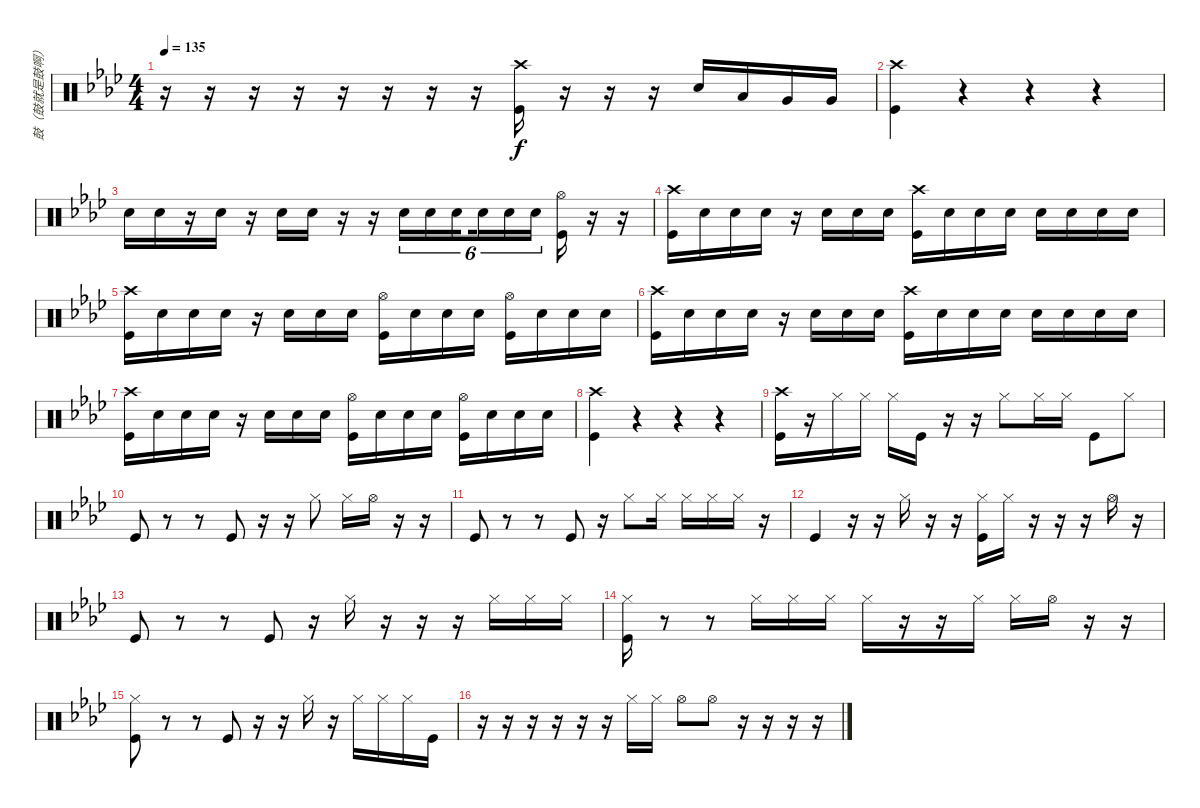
\track ("鼓（鼓就是鼓啊）" "鼓（鼓就是鼓啊）") {instrument percussion}
\staff {score}
\articulation defaults
\ts (4 4)
\tempo 135
\clef neutral
\ks ab
r.16{dy f} r.16 r.16 r.16 r.16 r.16 r.16 r.16 ("Crash high (hit)" "Kick (hit)").16 r.16 r.16 r.16 "Snare (hit) 2".16 "Low Tom (hit)".16 "Very Low Tom (hit)".16 "Very Low Tom (hit)".16 |
("Crash high (hit)" "Kick (hit)").4 r.4 r.4 r.4 |
"Snare (hit) 2".16 "Snare (hit) 2".16 r.16 "Snare (hit) 2".16 r.16 "Snare (hit) 2".16 "Snare (hit) 2".16 r.16 r.16 "Snare (hit) 2".16{tu (6 4)} "Snare (hit) 2".16{tu (6 4)} "Snare (hit) 2".16{tu (6 4) beam splitsecondary} "Snare (hit) 2".16{tu (6 4)} "Snare (hit) 2".16{tu (6 4)} "Snare (hit) 2".16{tu (6 4)} ("Hi-Hat (open)" "Kick (hit)").16 r.16 r.16 |
("Crash high (hit)" "Kick (hit)").16 "Snare (hit) 2".16 "Snare (hit) 2".16 "Snare (hit) 2".16 r.16 "Snare (hit) 2".16 "Snare (hit) 2".16 "Snare (hit) 2".16 ("Crash high (hit)" "Kick (hit)").16 "Snare (hit) 2".16 "Snare (hit) 2".16 "Snare (hit) 2".16 "Snare (hit) 2".16 "Snare (hit) 2".16 "Snare (hit) 2".16 "Snare (hit) 2".16 |
("Crash high (hit)" "Kick (hit)").16 "Snare (hit) 2".16 "Snare (hit) 2".16 "Snare (hit) 2".16 r.16 "Snare (hit) 2".16 "Snare (hit) 2".16 "Snare (hit) 2".16 ("Hi-Hat (open)" "Kick (hit)").16 "Snare (hit) 2".16 "Snare (hit) 2".16 "Snare (hit) 2".16 ("Hi-Hat (open)" "Kick (hit)").16 "Snare (hit) 2".16 "Snare (hit) 2".16 "Snare (hit) 2".16 |
("Crash high (hit)" "Kick (hit)").16 "Snare (hit) 2".16 "Snare (hit) 2".16 "Snare (hit) 2".16 r.16 "Snare (hit) 2".16 "Snare (hit) 2".16 "Snare (hit) 2".16 ("Crash high (hit)" "Kick (hit)").16 "Snare (hit) 2".16 "Snare (hit) 2".16 "Snare (hit) 2".16 "Snare (hit) 2".16 "Snare (hit) 2".16 "Snare (hit) 2".16 "Snare (hit) 2".16 |
("Crash high (hit)" "Kick (hit)").16 "Snare (hit) 2".16 "Snare (hit) 2".16 "Snare (hit) 2".16 r.16 "Snare (hit) 2".16 "Snare (hit) 2".16 "Snare (hit) 2".16 ("Hi-Hat (open)" "Kick (hit)").16 "Snare (hit) 2".16 "Snare (hit) 2".16 "Snare (hit) 2".16 ("Hi-Hat (open)" "Kick (hit)").16 "Snare (hit) 2".16 "Snare (hit) 2".16 "Snare (hit) 2".16 |
("Crash high (hit)" "Kick (hit)").4 r.4 r.4 r.4 |
("Crash high (hit)" "Kick (hit)").16 r.16 "Hi-Hat (closed)".16 "Hi-Hat (closed)".16 "Hi-Hat (closed)".16 "Kick (hit)".16 r.16 r.16 "Hi-Hat (closed)".8 "Hi-Hat (closed)".16 "Hi-Hat (closed)".16 "Kick (hit)".8 "Hi-Hat (closed)".8 |
"Kick (hit)".8 r.8 r.8 "Kick (hit)".8 r.16 r.16 "Hi-Hat (closed)".8 "Hi-Hat (closed)".16 "Hi-Hat (open)".16 r.16 r.16 |
"Kick (hit)".8 r.8 r.8 "Kick (hit)".8 r.16 "Hi-Hat (closed)".8 "Hi-Hat (closed)".16 "Hi-Hat (closed)".16 "Hi-Hat (closed)".16 "Hi-Hat (closed)".16 r.16 |
"Kick (hit)".4 r.16 r.16 "Hi-Hat (closed)".16 r.16 r.16 ("Hi-Hat (closed)" "Kick (hit)").16 "Hi-Hat (closed)".16 r.16 r.16 r.16 "Hi-Hat (open)".16 r.16 |
"Kick (hit)".8 r.8 r.8 "Kick (hit)".8 r.16 "Hi-Hat (closed)".16 r.16 r.16 r.16 "Hi-Hat (closed)".16 "Hi-Hat (closed)".16 "Hi-Hat (closed)".16 |
("Hi-Hat (closed)" "Kick (hit)").16 r.8 r.8 "Hi-Hat (closed)".16 "Hi-Hat (closed)".16 "Hi-Hat (closed)".16 "Hi-Hat (closed)".16 r.16 r.16 "Hi-Hat (closed)".16 "Hi-Hat (closed)".16 "Hi-Hat (open)".16 r.16 r.16 |
("Hi-Hat (closed)" "Kick (hit)").8 r.8 r.8 "Kick (hit)".8 r.16 r.16 "Hi-Hat (closed)".16 r.16 "Hi-Hat (closed)".16 "Hi-Hat (closed)".16 "Hi-Hat (closed)".16 "Kick (hit)".16 |
r.16 r.16 r.16 r.16 r.16 r.16 "Hi-Hat (closed)".16 "Hi-Hat (closed)".16 "Hi-Hat (open)".8 "Hi-Hat (open)".8 r.16 r.16 r.16 r.16
